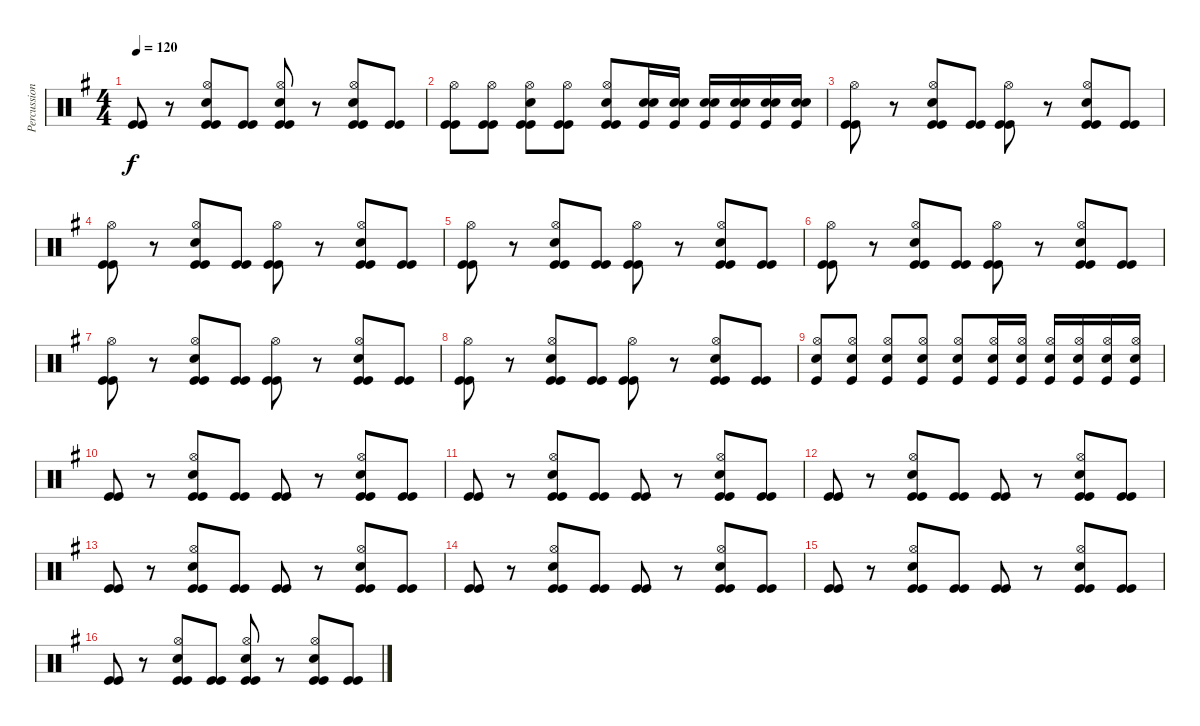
\track ("Percussion" "Percussion") {instrument percussion}
\staff {score}
\articulation defaults
\ts (4 4)
\tempo 120
\clef neutral
\ks eminor
("Kick (hit)" "Kick (hit)").8{dy f} r.8 ("Hi-Hat (open)" "Kick (hit)" "Kick (hit)" "Snare (hit) 2").8 ("Kick (hit)" "Kick (hit)").8 ("Hi-Hat (open)" "Kick (hit)" "Kick (hit)" "Snare (hit) 2").8 r.8 ("Hi-Hat (open)" "Kick (hit)" "Kick (hit)" "Snare (hit) 2").8 ("Kick (hit)" "Kick (hit)").8 |
("Hi-Hat (open)" "Kick (hit)" "Kick (hit)").8 ("Hi-Hat (open)" "Kick (hit)" "Kick (hit)").8 ("Hi-Hat (open)" "Kick (hit)" "Kick (hit)" "Snare (hit) 2").8 ("Hi-Hat (open)" "Kick (hit)" "Kick (hit)").8 ("Hi-Hat (open)" "Kick (hit)" "Kick (hit)" "Snare (hit) 2").8 ("Kick (hit)" "Electric Snare (hit)" "Snare (hit) 2").16 ("Kick (hit)" "Electric Snare (hit)" "Snare (hit) 2").16 ("Kick (hit)" "Electric Snare (hit)" "Snare (hit) 2").16 ("Kick (hit)" "Electric Snare (hit)" "Snare (hit) 2").16 ("Kick (hit)" "Electric Snare (hit)" "Snare (hit) 2").16 ("Kick (hit)" "Electric Snare (hit)" "Snare (hit) 2").16 |
("Hi-Hat (open)" "Kick (hit)" "Kick (hit)").8 r.8 ("Hi-Hat (open)" "Kick (hit)" "Kick (hit)" "Snare (hit) 2").8 ("Kick (hit)" "Kick (hit)").8 ("Hi-Hat (open)" "Kick (hit)" "Kick (hit)").8 r.8 ("Hi-Hat (open)" "Kick (hit)" "Kick (hit)" "Snare (hit) 2").8 ("Kick (hit)" "Kick (hit)").8 |
("Hi-Hat (open)" "Kick (hit)" "Kick (hit)").8 r.8 ("Hi-Hat (open)" "Kick (hit)" "Kick (hit)" "Snare (hit) 2").8 ("Kick (hit)" "Kick (hit)").8 ("Hi-Hat (open)" "Kick (hit)" "Kick (hit)").8 r.8 ("Hi-Hat (open)" "Kick (hit)" "Kick (hit)" "Snare (hit) 2").8 ("Kick (hit)" "Kick (hit)").8 |
("Hi-Hat (open)" "Kick (hit)" "Kick (hit)").8 r.8 ("Hi-Hat (open)" "Kick (hit)" "Kick (hit)" "Snare (hit) 2").8 ("Kick (hit)" "Kick (hit)").8 ("Hi-Hat (open)" "Kick (hit)" "Kick (hit)").8 r.8 ("Hi-Hat (open)" "Kick (hit)" "Kick (hit)" "Snare (hit) 2").8 ("Kick (hit)" "Kick (hit)").8 |
("Hi-Hat (open)" "Kick (hit)" "Kick (hit)").8 r.8 ("Hi-Hat (open)" "Kick (hit)" "Kick (hit)" "Snare (hit) 2").8 ("Kick (hit)" "Kick (hit)").8 ("Hi-Hat (open)" "Kick (hit)" "Kick (hit)").8 r.8 ("Hi-Hat (open)" "Kick (hit)" "Kick (hit)" "Snare (hit) 2").8 ("Kick (hit)" "Kick (hit)").8 |
("Hi-Hat (open)" "Kick (hit)" "Kick (hit)").8 r.8 ("Hi-Hat (open)" "Kick (hit)" "Kick (hit)" "Snare (hit) 2").8 ("Kick (hit)" "Kick (hit)").8 ("Hi-Hat (open)" "Kick (hit)" "Kick (hit)").8 r.8 ("Hi-Hat (open)" "Kick (hit)" "Kick (hit)" "Snare (hit) 2").8 ("Kick (hit)" "Kick (hit)").8 |
("Hi-Hat (open)" "Kick (hit)" "Kick (hit)").8 r.8 ("Hi-Hat (open)" "Kick (hit)" "Kick (hit)" "Snare (hit) 2").8 ("Kick (hit)" "Kick (hit)").8 ("Hi-Hat (open)" "Kick (hit)" "Kick (hit)").8 r.8 ("Hi-Hat (open)" "Kick (hit)" "Kick (hit)" "Snare (hit) 2").8 ("Kick (hit)" "Kick (hit)").8 |
("Hi-Hat (open)" "Kick (hit)" "Snare (hit) 2").8 ("Hi-Hat (open)" "Kick (hit)" "Snare (hit) 2").8 ("Hi-Hat (open)" "Kick (hit)" "Snare (hit) 2").8 ("Hi-Hat (open)" "Kick (hit)" "Snare (hit) 2").8 ("Hi-Hat (open)" "Kick (hit)" "Snare (hit) 2").8 ("Hi-Hat (open)" "Kick (hit)" "Snare (hit) 2").16 ("Hi-Hat (open)" "Kick (hit)" "Snare (hit) 2").16 ("Hi-Hat (open)" "Kick (hit)" "Snare (hit) 2").16 ("Hi-Hat (open)" "Kick (hit)" "Snare (hit) 2").16 ("Hi-Hat (open)" "Kick (hit)" "Snare (hit) 2").16 ("Hi-Hat (open)" "Kick (hit)" "Snare (hit) 2").16 |
("Kick (hit)" "Kick (hit)").8 r.8 ("Hi-Hat (open)" "Kick (hit)" "Kick (hit)" "Snare (hit) 2").8 ("Kick (hit)" "Kick (hit)").8 ("Kick (hit)" "Kick (hit)").8 r.8 ("Hi-Hat (open)" "Kick (hit)" "Kick (hit)" "Snare (hit) 2").8 ("Kick (hit)" "Kick (hit)").8 |
("Kick (hit)" "Kick (hit)").8 r.8 ("Hi-Hat (open)" "Kick (hit)" "Kick (hit)" "Snare (hit) 2").8 ("Kick (hit)" "Kick (hit)").8 ("Kick (hit)" "Kick (hit)").8 r.8 ("Hi-Hat (open)" "Kick (hit)" "Kick (hit)" "Snare (hit) 2").8 ("Kick (hit)" "Kick (hit)").8 |
("Kick (hit)" "Kick (hit)").8 r.8 ("Hi-Hat (open)" "Kick (hit)" "Kick (hit)" "Snare (hit) 2").8 ("Kick (hit)" "Kick (hit)").8 ("Kick (hit)" "Kick (hit)").8 r.8 ("Hi-Hat (open)" "Kick (hit)" "Kick (hit)" "Snare (hit) 2").8 ("Kick (hit)" "Kick (hit)").8 |
("Kick (hit)" "Kick (hit)").8 r.8 ("Hi-Hat (open)" "Kick (hit)" "Kick (hit)" "Snare (hit) 2").8 ("Kick (hit)" "Kick (hit)").8 ("Kick (hit)" "Kick (hit)").8 r.8 ("Hi-Hat (open)" "Kick (hit)" "Kick (hit)" "Snare (hit) 2").8 ("Kick (hit)" "Kick (hit)").8 |
("Kick (hit)" "Kick (hit)").8 r.8 ("Hi-Hat (open)" "Kick (hit)" "Kick (hit)" "Snare (hit) 2").8 ("Kick (hit)" "Kick (hit)").8 ("Kick (hit)" "Kick (hit)").8 r.8 ("Hi-Hat (open)" "Kick (hit)" "Kick (hit)" "Snare (hit) 2").8 ("Kick (hit)" "Kick (hit)").8 |
("Kick (hit)" "Kick (hit)").8 r.8 ("Hi-Hat (open)" "Kick (hit)" "Kick (hit)" "Snare (hit) 2").8 ("Kick (hit)" "Kick (hit)").8 ("Kick (hit)" "Kick (hit)").8 r.8 ("Hi-Hat (open)" "Kick (hit)" "Kick (hit)" "Snare (hit) 2").8 ("Kick (hit)" "Kick (hit)").8 |
("Kick (hit)" "Kick (hit)").8 r.8 ("Hi-Hat (open)" "Kick (hit)" "Kick (hit)" "Snare (hit) 2").8 ("Kick (hit)" "Kick (hit)").8 ("Hi-Hat (open)" "Kick (hit)" "Kick (hit)" "Snare (hit) 2").8 r.8 ("Hi-Hat (open)" "Kick (hit)" "Kick (hit)" "Snare (hit) 2").8 ("Kick (hit)" "Kick (hit)").8
